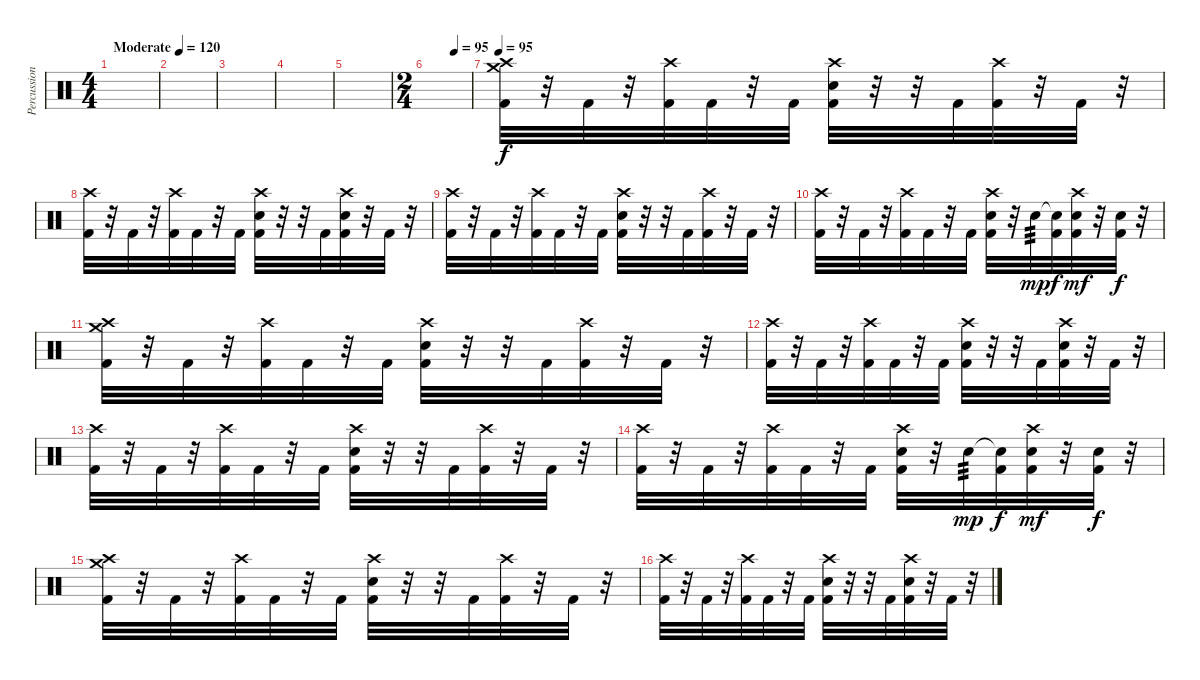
\track ("Percussion" "Percussion") {instrument percussion}
\staff {score}
\articulation defaults
\ts (4 4)
\tempo (120 "Moderate")
\clef neutral
\ks c
|
|
|
|
|
\ts (2 4)
\tempo (95 0.625)
|
\tempo 95
("Crash medium (hit)" "Crash high (hit)" "Kick (hit) 2").32 r.32 "Kick (hit) 2".32 r.32 ("Crash high (hit)" "Kick (hit) 2").32 "Kick (hit) 2".32 r.32 "Kick (hit) 2".32 ("Crash high (hit)" "Electric Snare (hit)" "Kick (hit) 2").32 r.32 r.32 "Kick (hit) 2".32 ("Crash high (hit)" "Kick (hit) 2").32 r.32 "Kick (hit) 2".32 r.32 |
("Crash high (hit)" "Kick (hit) 2").32 r.32 "Kick (hit) 2".32 r.32 ("Crash high (hit)" "Kick (hit) 2").32 "Kick (hit) 2".32 r.32 "Kick (hit) 2".32 ("Crash high (hit)" "Electric Snare (hit)" "Kick (hit) 2").32 r.32 r.32 "Kick (hit) 2".32 ("Crash high (hit)" "Electric Snare (hit)" "Kick (hit) 2").32 r.32 "Kick (hit) 2".32 r.32 |
("Crash high (hit)" "Kick (hit) 2").32 r.32 "Kick (hit) 2".32 r.32 ("Crash high (hit)" "Kick (hit) 2").32 "Kick (hit) 2".32 r.32 "Kick (hit) 2".32 ("Crash high (hit)" "Electric Snare (hit)" "Kick (hit) 2").32 r.32 r.32 "Kick (hit) 2".32 ("Crash high (hit)" "Kick (hit) 2").32 r.32 "Kick (hit) 2".32 r.32 |
("Crash high (hit)" "Kick (hit) 2").32 r.32 "Kick (hit) 2".32 r.32 ("Crash high (hit)" "Kick (hit) 2").32 "Kick (hit) 2".32 r.32 "Kick (hit) 2".32 ("Crash high (hit)" "Electric Snare (hit)" "Kick (hit) 2").32 r.32 "Electric Snare (hit)".32{tp 3 dy mp} ("Snare (hit)"{t} "Kick (hit) 2").32{dy f} ("Crash high (hit)" "Electric Snare (hit)" "Kick (hit) 2").32{dy mf} r.32 ("Electric Snare (hit)" "Kick (hit) 2").32{dy f} r.32 |
("Crash medium (hit)" "Crash high (hit)" "Kick (hit) 2").32 r.32 "Kick (hit) 2".32 r.32 ("Crash high (hit)" "Kick (hit) 2").32 "Kick (hit) 2".32 r.32 "Kick (hit) 2".32 ("Crash high (hit)" "Electric Snare (hit)" "Kick (hit) 2").32 r.32 r.32 "Kick (hit) 2".32 ("Crash high (hit)" "Kick (hit) 2").32 r.32 "Kick (hit) 2".32 r.32 |
("Crash high (hit)" "Kick (hit) 2").32 r.32 "Kick (hit) 2".32 r.32 ("Crash high (hit)" "Kick (hit) 2").32 "Kick (hit) 2".32 r.32 "Kick (hit) 2".32 ("Crash high (hit)" "Electric Snare (hit)" "Kick (hit) 2").32 r.32 r.32 "Kick (hit) 2".32 ("Crash high (hit)" "Electric Snare (hit)" "Kick (hit) 2").32 r.32 "Kick (hit) 2".32 r.32 |
("Crash high (hit)" "Kick (hit) 2").32 r.32 "Kick (hit) 2".32 r.32 ("Crash high (hit)" "Kick (hit) 2").32 "Kick (hit) 2".32 r.32 "Kick (hit) 2".32 ("Crash high (hit)" "Electric Snare (hit)" "Kick (hit) 2").32 r.32 r.32 "Kick (hit) 2".32 ("Crash high (hit)" "Kick (hit) 2").32 r.32 "Kick (hit) 2".32 r.32 |
("Crash high (hit)" "Kick (hit) 2").32 r.32 "Kick (hit) 2".32 r.32 ("Crash high (hit)" "Kick (hit) 2").32 "Kick (hit) 2".32 r.32 "Kick (hit) 2".32 ("Crash high (hit)" "Electric Snare (hit)" "Kick (hit) 2").32 r.32 "Electric Snare (hit)".32{tp 3 dy mp} ("Snare (hit)"{t} "Kick (hit) 2").32{dy f} ("Crash high (hit)" "Electric Snare (hit)" "Kick (hit) 2").32{dy mf} r.32 ("Electric Snare (hit)" "Kick (hit) 2").32{dy f} r.32 |
("Crash medium (hit)" "Crash high (hit)" "Kick (hit) 2").32 r.32 "Kick (hit) 2".32 r.32 ("Crash high (hit)" "Kick (hit) 2").32 "Kick (hit) 2".32 r.32 "Kick (hit) 2".32 ("Crash high (hit)" "Electric Snare (hit)" "Kick (hit) 2").32 r.32 r.32 "Kick (hit) 2".32 ("Crash high (hit)" "Kick (hit) 2").32 r.32 "Kick (hit) 2".32 r.32 |
("Crash high (hit)" "Kick (hit) 2").32 r.32 "Kick (hit) 2".32 r.32 ("Crash high (hit)" "Kick (hit) 2").32 "Kick (hit) 2".32 r.32 "Kick (hit) 2".32 ("Crash high (hit)" "Electric Snare (hit)" "Kick (hit) 2").32 r.32 r.32 "Kick (hit) 2".32 ("Crash high (hit)" "Electric Snare (hit)" "Kick (hit) 2").32 r.32 "Kick (hit) 2".32 r.32
